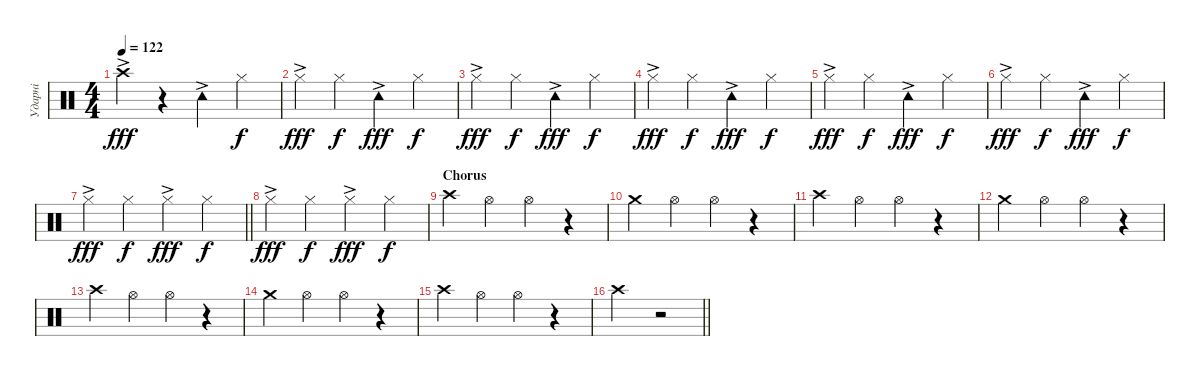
\track ("Ударні" "Ударні") {instrument percussion}
\staff {score}
\articulation defaults
\ts (4 4)
\tempo 122
\clef neutral
\ks c "Crash high (hit)"{ac}.4{dy fff}
r.4 "Tambourine (hit)"{ac}.4 "Hi-Hat (closed)".4{dy f} |
"Hi-Hat (closed)"{ac}.4{dy fff} "Hi-Hat (closed)".4{dy f} "Tambourine (hit)"{ac}.4{dy fff} "Hi-Hat (closed)".4{dy f} |
"Hi-Hat (closed)"{ac}.4{dy fff} "Hi-Hat (closed)".4{dy f} "Tambourine (hit)"{ac}.4{dy fff} "Hi-Hat (closed)".4{dy f} |
"Hi-Hat (closed)"{ac}.4{dy fff} "Hi-Hat (closed)".4{dy f} "Tambourine (hit)"{ac}.4{dy fff} "Hi-Hat (closed)".4{dy f} |
"Hi-Hat (closed)"{ac}.4{dy fff} "Hi-Hat (closed)".4{dy f} "Tambourine (hit)"{ac}.4{dy fff} "Hi-Hat (closed)".4{dy f} |
"Hi-Hat (closed)"{ac}.4{dy fff} "Hi-Hat (closed)".4{dy f} "Tambourine (hit)"{ac}.4{dy fff} "Hi-Hat (closed)".4{dy f} |
\barLineRight lightlight "Hi-Hat (closed)"{ac}.4{dy fff} "Hi-Hat (closed)".4{dy f} "Hi-Hat (closed)"{ac}.4{dy fff} "Hi-Hat (closed)".4{dy f}
|
"Hi-Hat (closed)"{ac}.4{dy fff} "Hi-Hat (closed)".4{dy f} "Hi-Hat (closed)"{ac}.4{dy fff} "Hi-Hat (closed)".4{dy f} |
\section ("" "Chorus")
"Crash high (hit)".4 "Hi-Hat (open)".4 "Hi-Hat (open)".4 r.4 |
"Crash medium (hit)".4 "Hi-Hat (open)".4 "Hi-Hat (open)".4 r.4 |
"Crash high (hit)".4 "Hi-Hat (open)".4 "Hi-Hat (open)".4 r.4 |
"Crash medium (hit)".4 "Hi-Hat (open)".4 "Hi-Hat (open)".4 r.4 |
"Crash high (hit)".4 "Hi-Hat (open)".4 "Hi-Hat (open)".4 r.4 |
"Crash medium (hit)".4 "Hi-Hat (open)".4 "Hi-Hat (open)".4 r.4 |
"Crash high (hit)".4 "Hi-Hat (open)".4 "Hi-Hat (open)".4 r.4 |
\barLineRight lightlight "Crash high (hit)".2
r.2
